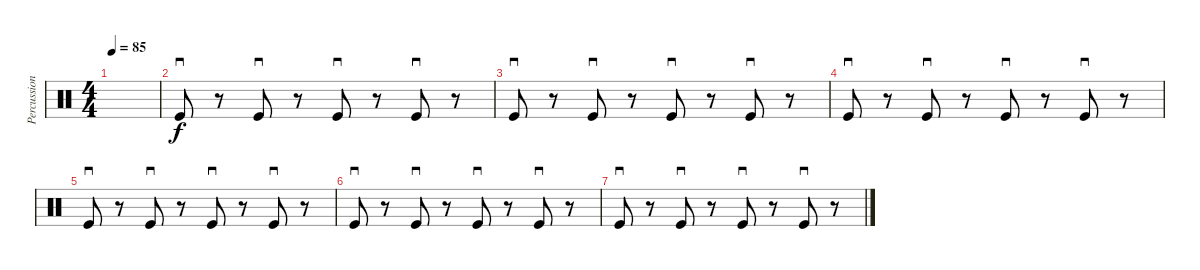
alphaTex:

\track ("Percussions" "Percussion") {instrument percussion}
\staff {score}
\articulation defaults
\ts (4 4)
\tempo 85
\clef neutral
\ks c
|
"Kick (hit)".8{sd} r.8 "Kick (hit)".8{sd} r.8 "Kick (hit)".8{sd} r.8 "Kick (hit)".8{sd} r.8 |
"Kick (hit)".8{sd} r.8 "Kick (hit)".8{sd} r.8 "Kick (hit)".8{sd} r.8 "Kick (hit)".8{sd} r.8 |
"Kick (hit)".8{sd} r.8 "Kick (hit)".8{sd} r.8 "Kick (hit)".8{sd} r.8 "Kick (hit)".8{sd} r.8 |
"Kick (hit)".8{sd} r.8 "Kick (hit)".8{sd} r.8 "Kick (hit)".8{sd} r.8 "Kick (hit)".8{sd} r.8 |
"Kick (hit)".8{sd} r.8 "Kick (hit)".8{sd} r.8 "Kick (hit)".8{sd} r.8 "Kick (hit)".8{sd} r.8 |
"Kick (hit)".8{sd} r.8 "Kick (hit)".8{sd} r.8 "Kick (hit)".8{sd} r.8 "Kick (hit)".8{sd} r.8
